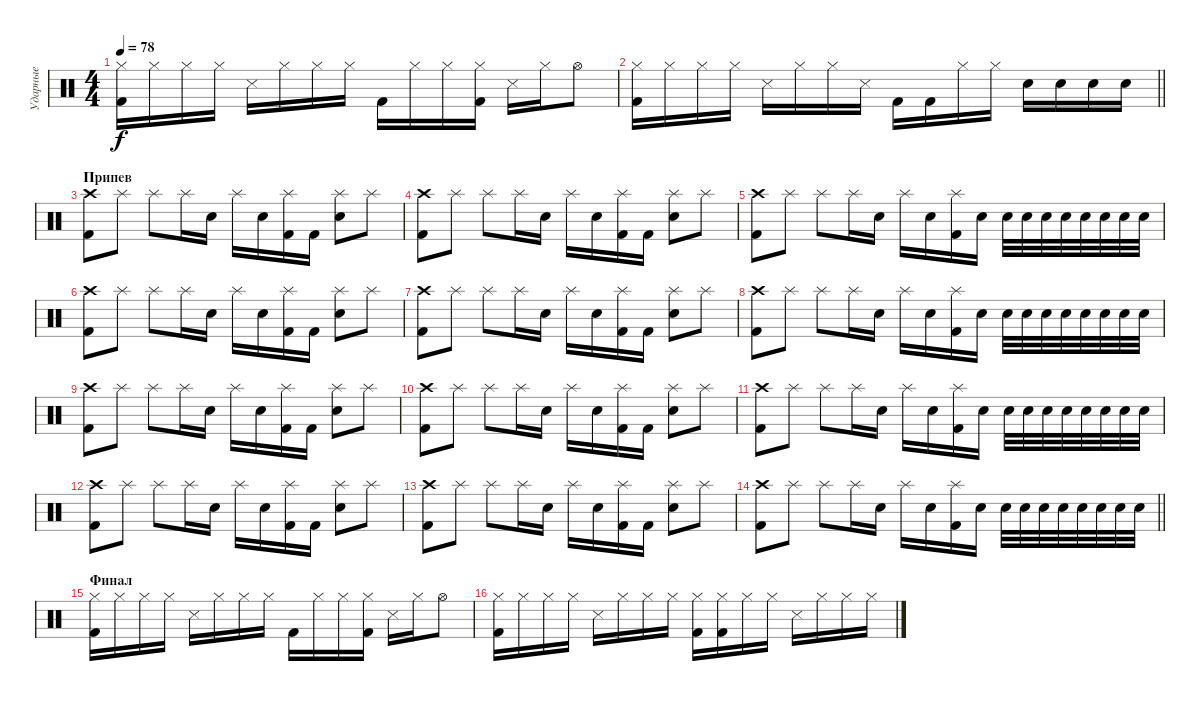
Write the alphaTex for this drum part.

\track ("Ударные" "Ударные") {instrument percussion}
\staff {score}
\articulation defaults
\ts (4 4)
\tempo 78
\clef neutral
\ks c
("Kick (hit) 2" "Hi-Hat (closed)").16{dy f} "Hi-Hat (closed)".16 "Hi-Hat (closed)".16 "Hi-Hat (closed)".16 "Snare (side stick) 3".16 "Hi-Hat (closed)".16 "Hi-Hat (closed)".16 "Hi-Hat (closed)".16 "Kick (hit) 2".16 "Hi-Hat (closed)".16 "Hi-Hat (closed)".16 ("Kick (hit) 2" "Hi-Hat (closed)").16 "Snare (side stick) 3".16 "Hi-Hat (closed)".16 "Hi-Hat (open)".8 |
\barLineRight lightlight
("Kick (hit) 2" "Hi-Hat (closed)").16 "Hi-Hat (closed)".16 "Hi-Hat (closed)".16 "Hi-Hat (closed)".16 "Snare (side stick) 3".16 "Hi-Hat (closed)".16 "Hi-Hat (closed)".16 "Snare (side stick) 3".16 "Kick (hit) 2".16 "Kick (hit) 2".16 "Hi-Hat (closed)".16 "Hi-Hat (closed)".16 "Electric Snare (hit)".16 "Electric Snare (hit)".16 "Electric Snare (hit)".16 "Electric Snare (hit)".16 |
\section ("" "Припев")
("Crash high (hit)" "Kick (hit) 2").8 "Splash (hit)".8 "Splash (hit)".8 "Splash (hit)".16 "Electric Snare (hit)".16 "Splash (hit)".16 "Electric Snare (hit)".16 ("Splash (hit)" "Kick (hit) 2").16 "Kick (hit) 2".16 ("Splash (hit)" "Electric Snare (hit)").8 "Splash (hit)".8 |
("Crash high (hit)" "Kick (hit) 2").8 "Splash (hit)".8 "Splash (hit)".8 "Splash (hit)".16 "Electric Snare (hit)".16 "Splash (hit)".16 "Electric Snare (hit)".16 ("Splash (hit)" "Kick (hit) 2").16 "Kick (hit) 2".16 ("Splash (hit)" "Electric Snare (hit)").8 "Splash (hit)".8 |
("Crash high (hit)" "Kick (hit) 2").8 "Splash (hit)".8 "Splash (hit)".8 "Splash (hit)".16 "Electric Snare (hit)".16 "Splash (hit)".16 "Electric Snare (hit)".16 ("Splash (hit)" "Kick (hit) 2").16 "Electric Snare (hit)".16 "Electric Snare (hit)".32 "Electric Snare (hit)".32 "Electric Snare (hit)".32 "Electric Snare (hit)".32 "Electric Snare (hit)".32 "Electric Snare (hit)".32 "Electric Snare (hit)".32 "Electric Snare (hit)".32 |
("Crash high (hit)" "Kick (hit) 2").8 "Splash (hit)".8 "Splash (hit)".8 "Splash (hit)".16 "Electric Snare (hit)".16 "Splash (hit)".16 "Electric Snare (hit)".16 ("Splash (hit)" "Kick (hit) 2").16 "Kick (hit) 2".16 ("Splash (hit)" "Electric Snare (hit)").8 "Splash (hit)".8 |
("Crash high (hit)" "Kick (hit) 2").8 "Splash (hit)".8 "Splash (hit)".8 "Splash (hit)".16 "Electric Snare (hit)".16 "Splash (hit)".16 "Electric Snare (hit)".16 ("Splash (hit)" "Kick (hit) 2").16 "Kick (hit) 2".16 ("Splash (hit)" "Electric Snare (hit)").8 "Splash (hit)".8 |
("Crash high (hit)" "Kick (hit) 2").8 "Splash (hit)".8 "Splash (hit)".8 "Splash (hit)".16 "Electric Snare (hit)".16 "Splash (hit)".16 "Electric Snare (hit)".16 ("Splash (hit)" "Kick (hit) 2").16 "Electric Snare (hit)".16 "Electric Snare (hit)".32 "Electric Snare (hit)".32 "Electric Snare (hit)".32 "Electric Snare (hit)".32 "Electric Snare (hit)".32 "Electric Snare (hit)".32 "Electric Snare (hit)".32 "Electric Snare (hit)".32 |
("Crash high (hit)" "Kick (hit) 2").8 "Splash (hit)".8 "Splash (hit)".8 "Splash (hit)".16 "Electric Snare (hit)".16 "Splash (hit)".16 "Electric Snare (hit)".16 ("Splash (hit)" "Kick (hit) 2").16 "Kick (hit) 2".16 ("Splash (hit)" "Electric Snare (hit)").8 "Splash (hit)".8 |
("Crash high (hit)" "Kick (hit) 2").8 "Splash (hit)".8 "Splash (hit)".8 "Splash (hit)".16 "Electric Snare (hit)".16 "Splash (hit)".16 "Electric Snare (hit)".16 ("Splash (hit)" "Kick (hit) 2").16 "Kick (hit) 2".16 ("Splash (hit)" "Electric Snare (hit)").8 "Splash (hit)".8 |
("Crash high (hit)" "Kick (hit) 2").8 "Splash (hit)".8 "Splash (hit)".8 "Splash (hit)".16 "Electric Snare (hit)".16 "Splash (hit)".16 "Electric Snare (hit)".16 ("Splash (hit)" "Kick (hit) 2").16 "Electric Snare (hit)".16 "Electric Snare (hit)".32 "Electric Snare (hit)".32 "Electric Snare (hit)".32 "Electric Snare (hit)".32 "Electric Snare (hit)".32 "Electric Snare (hit)".32 "Electric Snare (hit)".32 "Electric Snare (hit)".32 |
("Crash high (hit)" "Kick (hit) 2").8 "Splash (hit)".8 "Splash (hit)".8 "Splash (hit)".16 "Electric Snare (hit)".16 "Splash (hit)".16 "Electric Snare (hit)".16 ("Splash (hit)" "Kick (hit) 2").16 "Kick (hit) 2".16 ("Splash (hit)" "Electric Snare (hit)").8 "Splash (hit)".8 |
("Crash high (hit)" "Kick (hit) 2").8 "Splash (hit)".8 "Splash (hit)".8 "Splash (hit)".16 "Electric Snare (hit)".16 "Splash (hit)".16 "Electric Snare (hit)".16 ("Splash (hit)" "Kick (hit) 2").16 "Kick (hit) 2".16 ("Splash (hit)" "Electric Snare (hit)").8 "Splash (hit)".8 |
\barLineRight lightlight
("Crash high (hit)" "Kick (hit) 2").8 "Splash (hit)".8 "Splash (hit)".8 "Splash (hit)".16 "Electric Snare (hit)".16 "Splash (hit)".16 "Electric Snare (hit)".16 ("Splash (hit)" "Kick (hit) 2").16 "Electric Snare (hit)".16 "Electric Snare (hit)".32 "Electric Snare (hit)".32 "Electric Snare (hit)".32 "Electric Snare (hit)".32 "Electric Snare (hit)".32 "Electric Snare (hit)".32 "Electric Snare (hit)".32 "Electric Snare (hit)".32 |
\section ("" "Финал")
("Kick (hit) 2" "Hi-Hat (closed)").16 "Hi-Hat (closed)".16 "Hi-Hat (closed)".16 "Hi-Hat (closed)".16 "Snare (side stick) 3".16 "Hi-Hat (closed)".16 "Hi-Hat (closed)".16 "Hi-Hat (closed)".16 "Kick (hit) 2".16 "Hi-Hat (closed)".16 "Hi-Hat (closed)".16 ("Kick (hit) 2" "Hi-Hat (closed)").16 "Snare (side stick) 3".16 "Hi-Hat (closed)".16 "Hi-Hat (open)".8 |
("Hi-Hat (closed)" "Kick (hit) 2").16 "Hi-Hat (closed)".16 "Hi-Hat (closed)".16 "Hi-Hat (closed)".16 "Snare (side stick) 3".16 "Hi-Hat (closed)".16 "Hi-Hat (closed)".16 "Hi-Hat (closed)".16 ("Kick (hit) 2" "Hi-Hat (closed)").16 ("Hi-Hat (closed)" "Kick (hit) 2").16 "Hi-Hat (closed)".16 "Hi-Hat (closed)".16 "Snare (side stick) 3".16 "Hi-Hat (closed)".16 "Hi-Hat (closed)".16 "Hi-Hat (closed)".16
